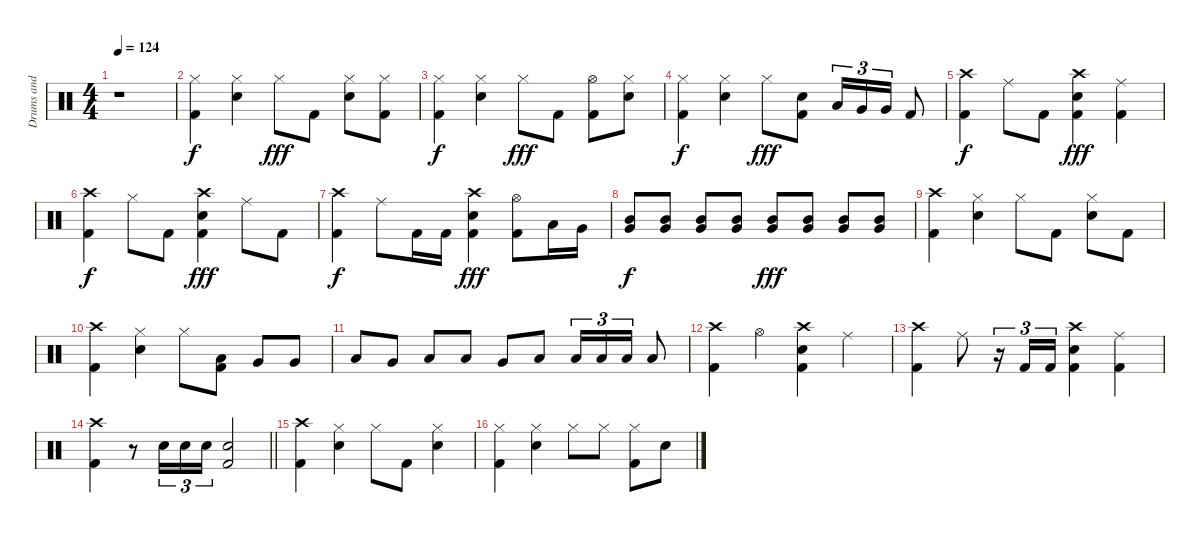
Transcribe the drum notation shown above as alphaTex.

\track ("Drums and percussion" "Drums and ") {instrument percussion}
\staff {score}
\articulation defaults
\ts (4 4)
\tempo 124
\clef neutral
\ks c
r.1{dy fff} |
("Hi-Hat (closed)" "Kick (hit) 2").4{dy f} ("Hi-Hat (closed)" "Electric Snare (hit)").4 "Hi-Hat (closed)".8{dy fff} "Kick (hit) 2".8 ("Hi-Hat (closed)" "Electric Snare (hit)").8 ("Hi-Hat (closed)" "Kick (hit) 2").8 |
("Hi-Hat (closed)" "Kick (hit) 2").4{dy f} ("Hi-Hat (closed)" "Electric Snare (hit)").4 "Hi-Hat (closed)".8{dy fff} "Kick (hit) 2".8 ("Hi-Hat (open)" "Kick (hit) 2").8 ("Hi-Hat (closed)" "Electric Snare (hit)").8 |
("Hi-Hat (closed)" "Kick (hit) 2").4{dy f} ("Hi-Hat (closed)" "Electric Snare (hit)").4 "Hi-Hat (closed)".8{dy fff} ("Electric Snare (hit)" "Kick (hit) 2").8 "Low Tom (hit)".16{tu (3 2)} "Very Low Tom (hit)".16{tu (3 2)} "Very Low Tom (hit)".16{tu (3 2)} "Kick (hit) 2".8 |
("Crash high (hit)" "Kick (hit) 2").4{dy f} "Ride (middle)".8 "Kick (hit) 2".8 ("Crash high (hit)" "Electric Snare (hit)" "Kick (hit) 2").4{dy fff} ("Ride (middle)" "Kick (hit) 2").4 |
("Crash high (hit)" "Kick (hit) 2").4{dy f} "Hi-Hat (closed)".8 "Kick (hit) 2".8 ("Crash high (hit)" "Electric Snare (hit)" "Kick (hit) 2").4{dy fff} "Ride (middle)".8 "Kick (hit) 2".8 |
("Crash high (hit)" "Kick (hit) 2").4{dy f} "Ride (middle)".8 "Kick (hit) 2".16 "Kick (hit) 2".16 ("Crash high (hit)" "Electric Snare (hit)" "Kick (hit) 2").4{dy fff} ("Hi-Hat (open)" "Kick (hit) 2").8 "Low Tom (hit)".16 "Very Low Tom (hit)".16 |
("Mid Tom (hit)" "Very Low Tom (hit)").8{dy f} ("Mid Tom (hit)" "Very Low Tom (hit)").8 ("Mid Tom (hit)" "Very Low Tom (hit)").8 ("Mid Tom (hit)" "Very Low Tom (hit)").8 ("Mid Tom (hit)" "Very Low Tom (hit)").8{dy fff} ("Mid Tom (hit)" "Very Low Tom (hit)").8 ("Mid Tom (hit)" "Very Low Tom (hit)").8 ("Mid Tom (hit)" "Very Low Tom (hit)").8 |
("Crash high (hit)" "Kick (hit) 2").4 ("Hi-Hat (closed)" "Electric Snare (hit)").4 "Hi-Hat (closed)".8 "Kick (hit) 2".8 ("Hi-Hat (closed)" "Electric Snare (hit)").8 "Kick (hit) 2".8 |
("Crash high (hit)" "Kick (hit) 2").4 ("Hi-Hat (closed)" "Electric Snare (hit)").4 "Hi-Hat (closed)".8 ("Low Tom (hit)" "Kick (hit) 2").8 "Very Low Tom (hit)".8 "Very Low Tom (hit)".8 |
"Low Tom (hit)".8 "Very Low Tom (hit)".8 "Low Floor Tom (hit)".8 "Low Tom (hit)".8 "Very Low Tom (hit)".8 "Low Floor Tom (hit)".8 "Low Tom (hit)".16{tu (3 2)} "Low Tom (hit)".16{tu (3 2)} "Low Tom (hit)".16{tu (3 2)} "Low Floor Tom (hit)".8 |
("Crash high (hit)" "Kick (hit) 2").4 "Hi-Hat (open)".4 ("Crash high (hit)" "Electric Snare (hit)" "Kick (hit) 2").4 "Ride (middle)".4 |
("Crash high (hit)" "Kick (hit) 2").4 "Ride (middle)".8 r.16{tu (3 2)} "Kick (hit) 2".16{tu (3 2)} "Kick (hit) 2".16{tu (3 2)} ("Crash high (hit)" "Electric Snare (hit)" "Kick (hit) 2").4 ("Ride (middle)" "Kick (hit) 2").4 |
\barLineRight lightlight
("Crash high (hit)" "Kick (hit) 2").4 r.8 "Electric Snare (hit)".16{tu (3 2)} "Electric Snare (hit)".16{tu (3 2)} "Electric Snare (hit)".16{tu (3 2)} ("Electric Snare (hit)" "Kick (hit) 2").2 |
("Crash high (hit)" "Kick (hit) 2").4 ("Hi-Hat (closed)" "Electric Snare (hit)").4 "Hi-Hat (closed)".8 "Kick (hit) 2".8 ("Hi-Hat (closed)" "Electric Snare (hit)").4 |
("Hi-Hat (closed)" "Kick (hit) 2").4 ("Hi-Hat (closed)" "Electric Snare (hit)").4 "Hi-Hat (closed)".8 "Hi-Hat (closed)".8 ("Hi-Hat (closed)" "Kick (hit) 2").8 "Electric Snare (hit)".8
